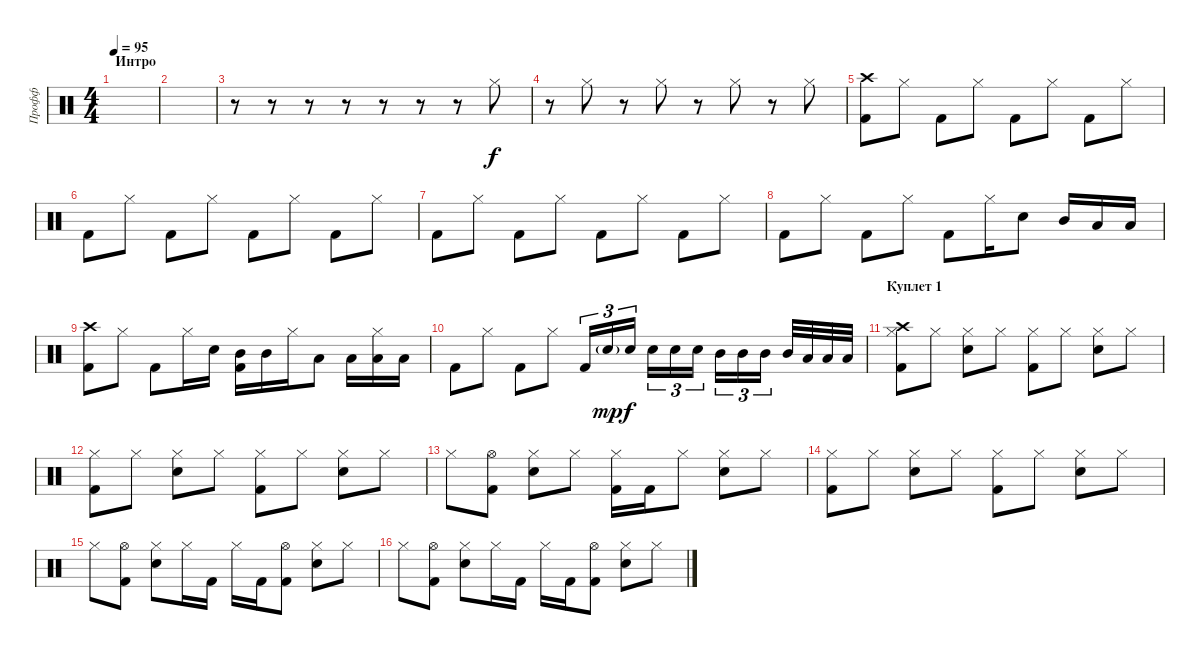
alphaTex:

\track ("Профф" "Профф") {instrument percussion}
\staff {score}
\articulation defaults
\ts (4 4)
\section ("" "Интро")
\tempo 95
\clef neutral
\ks c
|
|
r.8 r.8 r.8 r.8 r.8 r.8 r.8 "Hi-Hat (closed)".8 |
r.8 "Hi-Hat (closed)".8 r.8 "Hi-Hat (closed)".8 r.8 "Hi-Hat (closed)".8 r.8 "Hi-Hat (closed)".8 |
("Crash high (hit)" "Kick (hit) 2").8 "Hi-Hat (closed)".8 "Kick (hit) 2".8 "Hi-Hat (closed)".8 "Kick (hit) 2".8 "Hi-Hat (closed)".8 "Kick (hit) 2".8 "Hi-Hat (closed)".8 |
"Kick (hit) 2".8 "Hi-Hat (closed)".8 "Kick (hit) 2".8 "Hi-Hat (closed)".8 "Kick (hit) 2".8 "Hi-Hat (closed)".8 "Kick (hit) 2".8 "Hi-Hat (closed)".8 |
"Kick (hit) 2".8 "Hi-Hat (closed)".8 "Kick (hit) 2".8 "Hi-Hat (closed)".8 "Kick (hit) 2".8 "Hi-Hat (closed)".8 "Kick (hit) 2".8 "Hi-Hat (closed)".8 |
"Kick (hit) 2".8 "Hi-Hat (closed)".8 "Kick (hit) 2".8 "Hi-Hat (closed)".8 "Kick (hit) 2".8 "Hi-Hat (closed)".16 "Snare (hit) 2".8 "Mid Tom (hit)".16 "Low Tom (hit)".16 "Low Floor Tom (hit)".16 |
("Crash high (hit)" "Kick (hit) 2").8 "Hi-Hat (closed)".8 "Kick (hit) 2".8 "Hi-Hat (closed)".16 "Snare (hit) 2".16 ("Mid Tom (hit)" "Kick (hit) 2").16 "Mid Tom (hit)".16 "Hi-Hat (closed)".16 "Low Tom (hit)".8 "Low Tom (hit)".16 ("Hi-Hat (closed)" "Low Tom (hit)").16 "Low Floor Tom (hit)".16 |
"Kick (hit) 2".8 "Hi-Hat (closed)".8 "Kick (hit) 2".8 "Hi-Hat (closed)".8 "Kick (hit) 2".16{tu (3 2)} "Snare (hit) 2"{g}.16{tu (3 2) dy mp} "Snare (hit) 2".16{tu (3 2) dy f} "Snare (hit) 2".16{tu (3 2)} "Snare (hit) 2".16{tu (3 2)} "Snare (hit) 2".16{tu (3 2)} "Mid Tom (hit)".16{tu (3 2)} "Mid Tom (hit)".16{tu (3 2)} "Mid Tom (hit)".16{tu (3 2)} "Mid Tom (hit)".32 "Low Tom (hit)".32 "Low Tom (hit)".32 "Low Tom (hit)".32 |
\section ("" "Куплет 1")
("Hi-Hat (closed)" "Crash high (hit)" "Kick (hit) 2").8 "Hi-Hat (closed)".8 ("Hi-Hat (closed)" "Snare (hit) 2").8 "Hi-Hat (closed)".8 ("Hi-Hat (closed)" "Kick (hit) 2").8 "Hi-Hat (closed)".8 ("Hi-Hat (closed)" "Snare (hit) 2").8 "Hi-Hat (closed)".8 |
("Hi-Hat (closed)" "Kick (hit) 2").8 "Hi-Hat (closed)".8 ("Hi-Hat (closed)" "Snare (hit) 2").8 "Hi-Hat (closed)".8 ("Hi-Hat (closed)" "Kick (hit) 2").8 "Hi-Hat (closed)".8 ("Hi-Hat (closed)" "Snare (hit) 2").8 "Hi-Hat (closed)".8 |
"Hi-Hat (closed)".8 ("Hi-Hat (open)" "Kick (hit) 2").8 ("Hi-Hat (closed)" "Snare (hit) 2").8 "Hi-Hat (closed)".8 ("Hi-Hat (closed)" "Kick (hit) 2").16 "Kick (hit) 2".16 "Hi-Hat (closed)".8 ("Hi-Hat (closed)" "Snare (hit) 2").8 "Hi-Hat (closed)".8 |
("Hi-Hat (closed)" "Kick (hit) 2").8 "Hi-Hat (closed)".8 ("Hi-Hat (closed)" "Snare (hit) 2").8 "Hi-Hat (closed)".8 ("Hi-Hat (closed)" "Kick (hit) 2").8 "Hi-Hat (closed)".8 ("Hi-Hat (closed)" "Snare (hit) 2").8 "Hi-Hat (closed)".8 |
"Hi-Hat (closed)".8 ("Hi-Hat (open)" "Kick (hit) 2").8 ("Hi-Hat (closed)" "Snare (hit) 2").8 "Hi-Hat (closed)".16 "Kick (hit) 2".16 "Hi-Hat (closed)".16 "Kick (hit) 2".16 ("Hi-Hat (open)" "Kick (hit) 2").8 ("Hi-Hat (closed)" "Snare (hit) 2").8 "Hi-Hat (closed)".8 |
"Hi-Hat (closed)".8 ("Hi-Hat (open)" "Kick (hit) 2").8 ("Hi-Hat (closed)" "Snare (hit) 2").8 "Hi-Hat (closed)".16 "Kick (hit) 2".16 "Hi-Hat (closed)".16 "Kick (hit) 2".16 ("Hi-Hat (open)" "Kick (hit) 2").8 ("Hi-Hat (closed)" "Snare (hit) 2").8 "Hi-Hat (closed)".8
